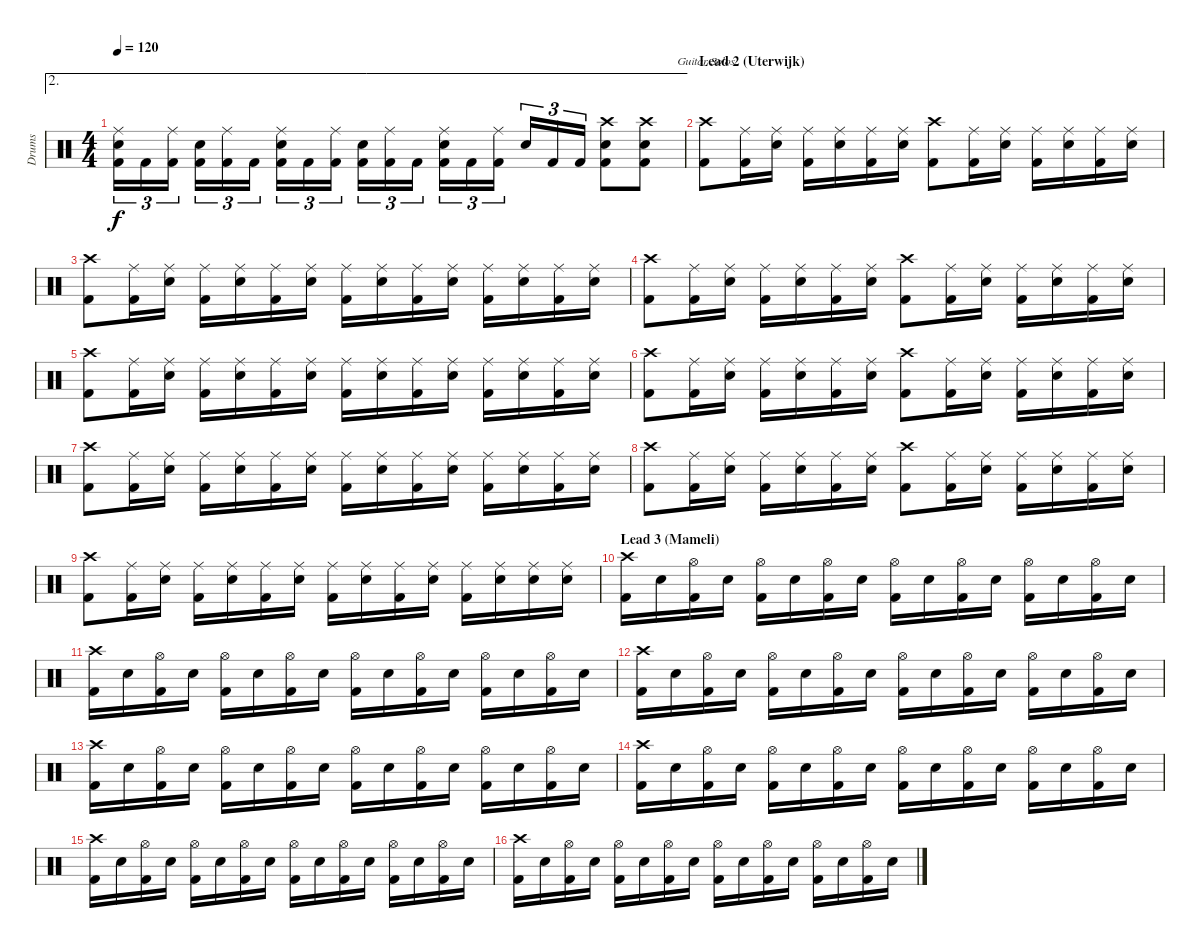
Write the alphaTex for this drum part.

\track ("Drums" "Drums") {instrument percussion}
\staff {score}
\articulation defaults
\chord ("Guitar Solos") {firstfret 0}
\ae 2
\ts (4 4)
\tempo 120
\clef neutral
\ks c
("Ride (middle)" "Snare (hit) 2" "Kick (hit) 2").16{tu (3 2) dy f} "Kick (hit) 2".16{tu (3 2)} ("Ride (middle)" "Kick (hit) 2").16{tu (3 2)} ("Snare (hit) 2" "Kick (hit) 2").16{tu (3 2)} ("Ride (middle)" "Kick (hit) 2").16{tu (3 2)} "Kick (hit) 2".16{tu (3 2)} ("Ride (middle)" "Snare (hit) 2" "Kick (hit) 2").16{tu (3 2)} "Kick (hit) 2".16{tu (3 2)} ("Ride (middle)" "Kick (hit) 2").16{tu (3 2)} ("Snare (hit) 2" "Kick (hit) 2").16{tu (3 2)} ("Ride (middle)" "Kick (hit) 2").16{tu (3 2)} "Kick (hit) 2".16{tu (3 2)} ("Ride (middle)" "Snare (hit) 2" "Kick (hit) 2").16{tu (3 2)} "Kick (hit) 2".16{tu (3 2)} ("Ride (middle)" "Kick (hit) 2").16{tu (3 2)} "Snare (hit) 2".16{tu (3 2)} "Kick (hit) 2".16{tu (3 2)} "Kick (hit) 2".16{tu (3 2)} ("Crash high (hit)" "Snare (hit) 2" "Kick (hit) 2").8 ("Crash high (hit)" "Snare (hit) 2" "Kick (hit) 2").8 |
\section ("" "Lead 2 (Uterwijk)")
("Crash high (hit)" "Kick (hit) 2").8{ch "Guitar Solos"} ("Ride (middle)" "Kick (hit) 2").16 ("Ride (middle)" "Snare (hit) 2").16 ("Ride (middle)" "Kick (hit) 2").16 ("Ride (middle)" "Snare (hit) 2").16 ("Ride (middle)" "Kick (hit) 2").16 ("Ride (middle)" "Snare (hit) 2").16 ("Crash high (hit)" "Kick (hit) 2").8 ("Ride (middle)" "Kick (hit) 2").16 ("Ride (middle)" "Snare (hit) 2").16 ("Ride (middle)" "Kick (hit) 2").16 ("Ride (middle)" "Snare (hit) 2").16 ("Ride (middle)" "Kick (hit) 2").16 ("Ride (middle)" "Snare (hit) 2").16 |
("Crash high (hit)" "Kick (hit) 2").8 ("Ride (middle)" "Kick (hit) 2").16 ("Ride (middle)" "Snare (hit) 2").16 ("Ride (middle)" "Kick (hit) 2").16 ("Ride (middle)" "Snare (hit) 2").16 ("Ride (middle)" "Kick (hit) 2").16 ("Ride (middle)" "Snare (hit) 2").16 ("Ride (middle)" "Kick (hit) 2").16 ("Ride (middle)" "Snare (hit) 2").16 ("Ride (middle)" "Kick (hit) 2").16 ("Ride (middle)" "Snare (hit) 2").16 ("Ride (middle)" "Kick (hit) 2").16 ("Ride (middle)" "Snare (hit) 2").16 ("Ride (middle)" "Kick (hit) 2").16 ("Ride (middle)" "Snare (hit) 2").16 |
("Crash high (hit)" "Kick (hit) 2").8 ("Ride (middle)" "Kick (hit) 2").16 ("Ride (middle)" "Snare (hit) 2").16 ("Ride (middle)" "Kick (hit) 2").16 ("Ride (middle)" "Snare (hit) 2").16 ("Ride (middle)" "Kick (hit) 2").16 ("Ride (middle)" "Snare (hit) 2").16 ("Crash high (hit)" "Kick (hit) 2").8 ("Ride (middle)" "Kick (hit) 2").16 ("Ride (middle)" "Snare (hit) 2").16 ("Ride (middle)" "Kick (hit) 2").16 ("Ride (middle)" "Snare (hit) 2").16 ("Ride (middle)" "Kick (hit) 2").16 ("Ride (middle)" "Snare (hit) 2").16 |
("Crash high (hit)" "Kick (hit) 2").8 ("Ride (middle)" "Kick (hit) 2").16 ("Ride (middle)" "Snare (hit) 2").16 ("Ride (middle)" "Kick (hit) 2").16 ("Ride (middle)" "Snare (hit) 2").16 ("Ride (middle)" "Kick (hit) 2").16 ("Ride (middle)" "Snare (hit) 2").16 ("Ride (middle)" "Kick (hit) 2").16 ("Ride (middle)" "Snare (hit) 2").16 ("Ride (middle)" "Kick (hit) 2").16 ("Ride (middle)" "Snare (hit) 2").16 ("Ride (middle)" "Kick (hit) 2").16 ("Ride (middle)" "Snare (hit) 2").16 ("Ride (middle)" "Kick (hit) 2").16 ("Ride (middle)" "Snare (hit) 2").16 |
("Crash high (hit)" "Kick (hit) 2").8 ("Ride (middle)" "Kick (hit) 2").16 ("Ride (middle)" "Snare (hit) 2").16 ("Ride (middle)" "Kick (hit) 2").16 ("Ride (middle)" "Snare (hit) 2").16 ("Ride (middle)" "Kick (hit) 2").16 ("Ride (middle)" "Snare (hit) 2").16 ("Crash high (hit)" "Kick (hit) 2").8 ("Ride (middle)" "Kick (hit) 2").16 ("Ride (middle)" "Snare (hit) 2").16 ("Ride (middle)" "Kick (hit) 2").16 ("Ride (middle)" "Snare (hit) 2").16 ("Ride (middle)" "Kick (hit) 2").16 ("Ride (middle)" "Snare (hit) 2").16 |
("Crash high (hit)" "Kick (hit) 2").8 ("Ride (middle)" "Kick (hit) 2").16 ("Ride (middle)" "Snare (hit) 2").16 ("Ride (middle)" "Kick (hit) 2").16 ("Ride (middle)" "Snare (hit) 2").16 ("Ride (middle)" "Kick (hit) 2").16 ("Ride (middle)" "Snare (hit) 2").16 ("Ride (middle)" "Kick (hit) 2").16 ("Ride (middle)" "Snare (hit) 2").16 ("Ride (middle)" "Kick (hit) 2").16 ("Ride (middle)" "Snare (hit) 2").16 ("Ride (middle)" "Kick (hit) 2").16 ("Ride (middle)" "Snare (hit) 2").16 ("Ride (middle)" "Kick (hit) 2").16 ("Ride (middle)" "Snare (hit) 2").16 |
("Crash high (hit)" "Kick (hit) 2").8 ("Ride (middle)" "Kick (hit) 2").16 ("Ride (middle)" "Snare (hit) 2").16 ("Ride (middle)" "Kick (hit) 2").16 ("Ride (middle)" "Snare (hit) 2").16 ("Ride (middle)" "Kick (hit) 2").16 ("Ride (middle)" "Snare (hit) 2").16 ("Crash high (hit)" "Kick (hit) 2").8 ("Ride (middle)" "Kick (hit) 2").16 ("Ride (middle)" "Snare (hit) 2").16 ("Ride (middle)" "Kick (hit) 2").16 ("Ride (middle)" "Snare (hit) 2").16 ("Ride (middle)" "Kick (hit) 2").16 ("Ride (middle)" "Snare (hit) 2").16 |
("Crash high (hit)" "Kick (hit) 2").8 ("Ride (middle)" "Kick (hit) 2").16 ("Ride (middle)" "Snare (hit) 2").16 ("Ride (middle)" "Kick (hit) 2").16 ("Ride (middle)" "Snare (hit) 2").16 ("Ride (middle)" "Kick (hit) 2").16 ("Ride (middle)" "Snare (hit) 2").16 ("Ride (middle)" "Kick (hit) 2").16 ("Ride (middle)" "Snare (hit) 2").16 ("Ride (middle)" "Kick (hit) 2").16 ("Ride (middle)" "Snare (hit) 2").16 ("Ride (middle)" "Kick (hit) 2").16 ("Ride (middle)" "Snare (hit) 2").16 ("Ride (middle)" "Snare (hit) 2").16 ("Ride (middle)" "Snare (hit) 2").16 |
\section ("" "Lead 3 (Mameli)")
("Crash high (hit)" "Kick (hit) 2").16 "Snare (hit) 2".16 ("Hi-Hat (open)" "Kick (hit) 2").16 "Snare (hit) 2".16 ("Hi-Hat (open)" "Kick (hit) 2").16 "Snare (hit) 2".16 ("Hi-Hat (open)" "Kick (hit) 2").16 "Snare (hit) 2".16 ("Hi-Hat (open)" "Kick (hit) 2").16 "Snare (hit) 2".16 ("Hi-Hat (open)" "Kick (hit) 2").16 "Snare (hit) 2".16 ("Hi-Hat (open)" "Kick (hit) 2").16 "Snare (hit) 2".16 ("Hi-Hat (open)" "Kick (hit) 2").16 "Snare (hit) 2".16 |
("Crash high (hit)" "Kick (hit) 2").16 "Snare (hit) 2".16 ("Hi-Hat (open)" "Kick (hit) 2").16 "Snare (hit) 2".16 ("Hi-Hat (open)" "Kick (hit) 2").16 "Snare (hit) 2".16 ("Hi-Hat (open)" "Kick (hit) 2").16 "Snare (hit) 2".16 ("Hi-Hat (open)" "Kick (hit) 2").16 "Snare (hit) 2".16 ("Hi-Hat (open)" "Kick (hit) 2").16 "Snare (hit) 2".16 ("Hi-Hat (open)" "Kick (hit) 2").16 "Snare (hit) 2".16 ("Hi-Hat (open)" "Kick (hit) 2").16 "Snare (hit) 2".16 |
("Crash high (hit)" "Kick (hit) 2").16 "Snare (hit) 2".16 ("Hi-Hat (open)" "Kick (hit) 2").16 "Snare (hit) 2".16 ("Hi-Hat (open)" "Kick (hit) 2").16 "Snare (hit) 2".16 ("Hi-Hat (open)" "Kick (hit) 2").16 "Snare (hit) 2".16 ("Hi-Hat (open)" "Kick (hit) 2").16 "Snare (hit) 2".16 ("Hi-Hat (open)" "Kick (hit) 2").16 "Snare (hit) 2".16 ("Hi-Hat (open)" "Kick (hit) 2").16 "Snare (hit) 2".16 ("Hi-Hat (open)" "Kick (hit) 2").16 "Snare (hit) 2".16 |
("Crash high (hit)" "Kick (hit) 2").16 "Snare (hit) 2".16 ("Hi-Hat (open)" "Kick (hit) 2").16 "Snare (hit) 2".16 ("Hi-Hat (open)" "Kick (hit) 2").16 "Snare (hit) 2".16 ("Hi-Hat (open)" "Kick (hit) 2").16 "Snare (hit) 2".16 ("Hi-Hat (open)" "Kick (hit) 2").16 "Snare (hit) 2".16 ("Hi-Hat (open)" "Kick (hit) 2").16 "Snare (hit) 2".16 ("Hi-Hat (open)" "Kick (hit) 2").16 "Snare (hit) 2".16 ("Hi-Hat (open)" "Kick (hit) 2").16 "Snare (hit) 2".16 |
("Crash high (hit)" "Kick (hit) 2").16 "Snare (hit) 2".16 ("Hi-Hat (open)" "Kick (hit) 2").16 "Snare (hit) 2".16 ("Hi-Hat (open)" "Kick (hit) 2").16 "Snare (hit) 2".16 ("Hi-Hat (open)" "Kick (hit) 2").16 "Snare (hit) 2".16 ("Hi-Hat (open)" "Kick (hit) 2").16 "Snare (hit) 2".16 ("Hi-Hat (open)" "Kick (hit) 2").16 "Snare (hit) 2".16 ("Hi-Hat (open)" "Kick (hit) 2").16 "Snare (hit) 2".16 ("Hi-Hat (open)" "Kick (hit) 2").16 "Snare (hit) 2".16 |
("Crash high (hit)" "Kick (hit) 2").16 "Snare (hit) 2".16 ("Hi-Hat (open)" "Kick (hit) 2").16 "Snare (hit) 2".16 ("Hi-Hat (open)" "Kick (hit) 2").16 "Snare (hit) 2".16 ("Hi-Hat (open)" "Kick (hit) 2").16 "Snare (hit) 2".16 ("Hi-Hat (open)" "Kick (hit) 2").16 "Snare (hit) 2".16 ("Hi-Hat (open)" "Kick (hit) 2").16 "Snare (hit) 2".16 ("Hi-Hat (open)" "Kick (hit) 2").16 "Snare (hit) 2".16 ("Hi-Hat (open)" "Kick (hit) 2").16 "Snare (hit) 2".16 |
("Crash high (hit)" "Kick (hit) 2").16 "Snare (hit) 2".16 ("Hi-Hat (open)" "Kick (hit) 2").16 "Snare (hit) 2".16 ("Hi-Hat (open)" "Kick (hit) 2").16 "Snare (hit) 2".16 ("Hi-Hat (open)" "Kick (hit) 2").16 "Snare (hit) 2".16 ("Hi-Hat (open)" "Kick (hit) 2").16 "Snare (hit) 2".16 ("Hi-Hat (open)" "Kick (hit) 2").16 "Snare (hit) 2".16 ("Hi-Hat (open)" "Kick (hit) 2").16 "Snare (hit) 2".16 ("Hi-Hat (open)" "Kick (hit) 2").16 "Snare (hit) 2".16
